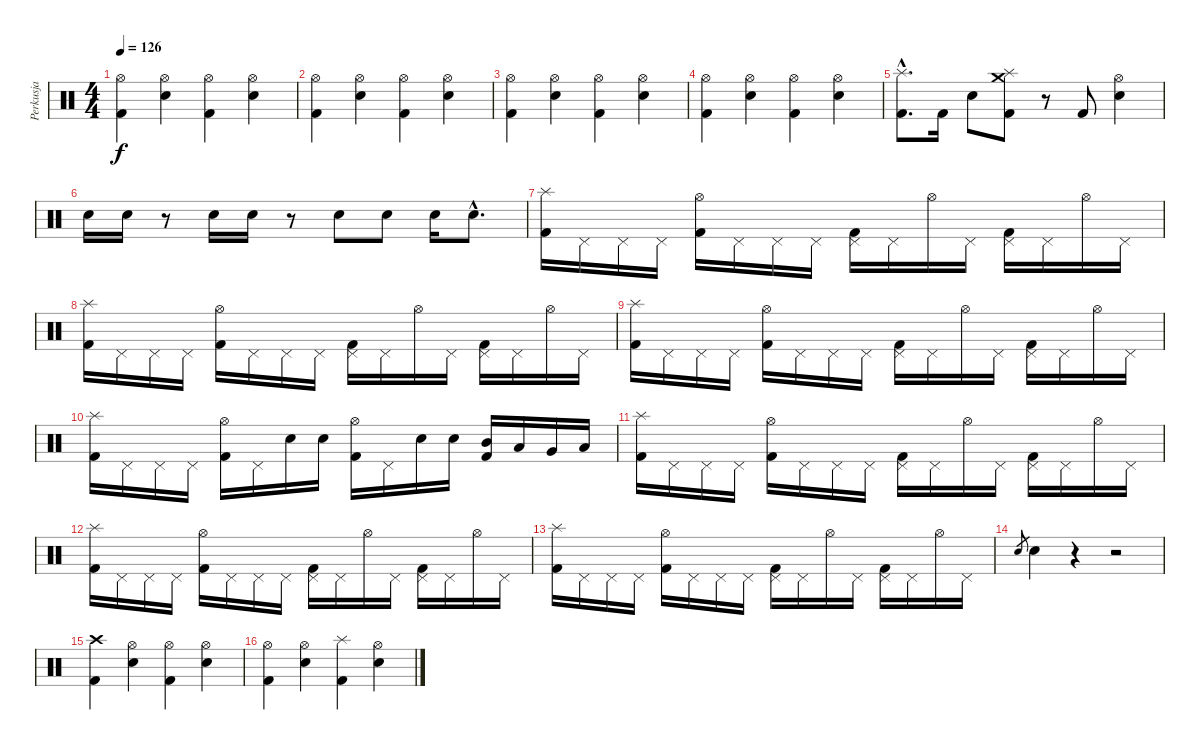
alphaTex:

\track ("Perkusja" "Perkusja") {instrument percussion}
\staff {score}
\articulation defaults
\ts (4 4)
\tempo 126
\clef neutral
\ks c
("Hi-Hat (open)" "Kick (hit) 2").4{dy f} ("Hi-Hat (open)" "Electric Snare (hit)").4 ("Hi-Hat (open)" "Kick (hit) 2").4 ("Hi-Hat (open)" "Electric Snare (hit)").4 |
("Hi-Hat (open)" "Kick (hit) 2").4 ("Hi-Hat (open)" "Electric Snare (hit)").4 ("Hi-Hat (open)" "Kick (hit) 2").4 ("Hi-Hat (open)" "Electric Snare (hit)").4 |
("Hi-Hat (open)" "Kick (hit) 2").4 ("Hi-Hat (open)" "Electric Snare (hit)").4 ("Hi-Hat (open)" "Kick (hit) 2").4 ("Hi-Hat (open)" "Electric Snare (hit)").4 |
("Hi-Hat (open)" "Kick (hit) 2").4 ("Hi-Hat (open)" "Electric Snare (hit)").4 ("Hi-Hat (open)" "Kick (hit) 2").4 ("Hi-Hat (open)" "Electric Snare (hit)").4 |
("Splash (hit)"{hac} "Kick (hit) 2"{hac}).8{d} "Kick (hit) 2".16 "Electric Snare (hit)".8 ("Crash medium (hit)" "Splash (hit)" "Kick (hit) 2").8 r.8 "Kick (hit) 2".8 ("Hi-Hat (open)" "Electric Snare (hit)").4 |
"Electric Snare (hit)".16 "Electric Snare (hit)".16 r.8 "Electric Snare (hit)".16 "Electric Snare (hit)".16 r.8 "Electric Snare (hit)".8 "Electric Snare (hit)".8 "Electric Snare (hit)".16 "Electric Snare (hit)"{hac}.8{d} |
("Splash (hit)" "Kick (hit) 2").16 "Pedal Hi-Hat (hit)".16 "Pedal Hi-Hat (hit)".16 "Pedal Hi-Hat (hit)".16 ("Hi-Hat (open)" "Kick (hit) 2").16 "Pedal Hi-Hat (hit)".16 "Pedal Hi-Hat (hit)".16 "Pedal Hi-Hat (hit)".16 ("Pedal Hi-Hat (hit)" "Kick (hit) 2").16 "Pedal Hi-Hat (hit)".16 "Hi-Hat (open)".16 "Pedal Hi-Hat (hit)".16 ("Pedal Hi-Hat (hit)" "Kick (hit) 2").16 "Pedal Hi-Hat (hit)".16 "Hi-Hat (open)".16 "Pedal Hi-Hat (hit)".16 |
("Splash (hit)" "Kick (hit) 2").16 "Pedal Hi-Hat (hit)".16 "Pedal Hi-Hat (hit)".16 "Pedal Hi-Hat (hit)".16 ("Hi-Hat (open)" "Kick (hit) 2").16 "Pedal Hi-Hat (hit)".16 "Pedal Hi-Hat (hit)".16 "Pedal Hi-Hat (hit)".16 ("Pedal Hi-Hat (hit)" "Kick (hit) 2").16 "Pedal Hi-Hat (hit)".16 "Hi-Hat (open)".16 "Pedal Hi-Hat (hit)".16 ("Pedal Hi-Hat (hit)" "Kick (hit) 2").16 "Pedal Hi-Hat (hit)".16 "Hi-Hat (open)".16 "Pedal Hi-Hat (hit)".16 |
("Splash (hit)" "Kick (hit) 2").16 "Pedal Hi-Hat (hit)".16 "Pedal Hi-Hat (hit)".16 "Pedal Hi-Hat (hit)".16 ("Hi-Hat (open)" "Kick (hit) 2").16 "Pedal Hi-Hat (hit)".16 "Pedal Hi-Hat (hit)".16 "Pedal Hi-Hat (hit)".16 ("Pedal Hi-Hat (hit)" "Kick (hit) 2").16 "Pedal Hi-Hat (hit)".16 "Hi-Hat (open)".16 "Pedal Hi-Hat (hit)".16 ("Pedal Hi-Hat (hit)" "Kick (hit) 2").16 "Pedal Hi-Hat (hit)".16 "Hi-Hat (open)".16 "Pedal Hi-Hat (hit)".16 |
("Splash (hit)" "Kick (hit) 2").16 "Pedal Hi-Hat (hit)".16 "Pedal Hi-Hat (hit)".16 "Pedal Hi-Hat (hit)".16 ("Hi-Hat (open)" "Kick (hit) 2").16 "Pedal Hi-Hat (hit)".16 "Electric Snare (hit)".16 "Electric Snare (hit)".16 ("Hi-Hat (open)" "Kick (hit) 2").16 "Pedal Hi-Hat (hit)".16 "Electric Snare (hit)".16 "Electric Snare (hit)".16 ("Kick (hit) 2" "Mid Tom (hit)").16 "Low Tom (hit)".16 "Very Low Tom (hit)".16 "Low Floor Tom (hit)".16 |
("Splash (hit)" "Kick (hit) 2").16 "Pedal Hi-Hat (hit)".16 "Pedal Hi-Hat (hit)".16 "Pedal Hi-Hat (hit)".16 ("Hi-Hat (open)" "Kick (hit) 2").16 "Pedal Hi-Hat (hit)".16 "Pedal Hi-Hat (hit)".16 "Pedal Hi-Hat (hit)".16 ("Pedal Hi-Hat (hit)" "Kick (hit) 2").16 "Pedal Hi-Hat (hit)".16 "Hi-Hat (open)".16 "Pedal Hi-Hat (hit)".16 ("Pedal Hi-Hat (hit)" "Kick (hit) 2").16 "Pedal Hi-Hat (hit)".16 "Hi-Hat (open)".16 "Pedal Hi-Hat (hit)".16 |
("Splash (hit)" "Kick (hit) 2").16 "Pedal Hi-Hat (hit)".16 "Pedal Hi-Hat (hit)".16 "Pedal Hi-Hat (hit)".16 ("Hi-Hat (open)" "Kick (hit) 2").16 "Pedal Hi-Hat (hit)".16 "Pedal Hi-Hat (hit)".16 "Pedal Hi-Hat (hit)".16 ("Pedal Hi-Hat (hit)" "Kick (hit) 2").16 "Pedal Hi-Hat (hit)".16 "Hi-Hat (open)".16 "Pedal Hi-Hat (hit)".16 ("Pedal Hi-Hat (hit)" "Kick (hit) 2").16 "Pedal Hi-Hat (hit)".16 "Hi-Hat (open)".16 "Pedal Hi-Hat (hit)".16 |
("Splash (hit)" "Kick (hit) 2").16 "Pedal Hi-Hat (hit)".16 "Pedal Hi-Hat (hit)".16 "Pedal Hi-Hat (hit)".16 ("Hi-Hat (open)" "Kick (hit) 2").16 "Pedal Hi-Hat (hit)".16 "Pedal Hi-Hat (hit)".16 "Pedal Hi-Hat (hit)".16 ("Pedal Hi-Hat (hit)" "Kick (hit) 2").16 "Pedal Hi-Hat (hit)".16 "Hi-Hat (open)".16 "Pedal Hi-Hat (hit)".16 ("Pedal Hi-Hat (hit)" "Kick (hit) 2").16 "Pedal Hi-Hat (hit)".16 "Hi-Hat (open)".16 "Pedal Hi-Hat (hit)".16 |
"Electric Snare (hit)".8{gr} "Electric Snare (hit)".4 r.4 r.2 |
("Crash high (hit)" "Kick (hit) 2").4 ("Hi-Hat (open)" "Electric Snare (hit)").4 ("Hi-Hat (open)" "Kick (hit) 2").4 ("Hi-Hat (open)" "Electric Snare (hit)").4 |
("Hi-Hat (open)" "Kick (hit) 2").4 ("Hi-Hat (open)" "Electric Snare (hit)").4 ("Splash (hit)" "Kick (hit) 2").4 ("Hi-Hat (open)" "Electric Snare (hit)").4
